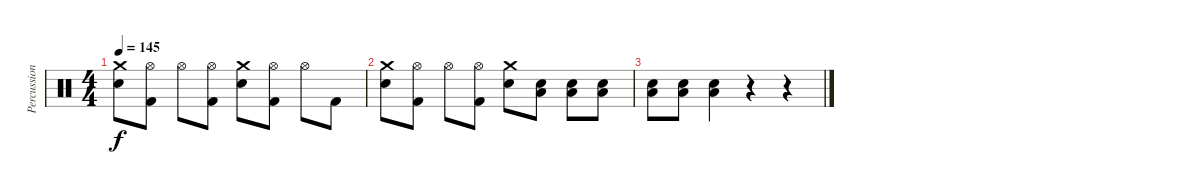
\track ("Percussion" "Percussion") {instrument percussion}
\staff {score}
\articulation defaults
\ts (4 4)
\tempo 145
\clef neutral
\ks c
("Crash medium (hit)" "Electric Snare (hit)").8{dy f} ("Hi-Hat (open)" "Kick (hit) 2").8 "Hi-Hat (open)".8 ("Hi-Hat (open)" "Kick (hit) 2").8 ("Crash medium (hit)" "Electric Snare (hit)").8 ("Hi-Hat (open)" "Kick (hit) 2").8 "Hi-Hat (open)".8 "Kick (hit) 2".8 |
("Crash medium (hit)" "Electric Snare (hit)").8 ("Hi-Hat (open)" "Kick (hit) 2").8 "Hi-Hat (open)".8 ("Hi-Hat (open)" "Kick (hit) 2").8 ("Crash medium (hit)" "Electric Snare (hit)").8 ("Low Tom (hit)" "Electric Snare (hit)").8 ("Low Tom (hit)" "Electric Snare (hit)").8 ("Low Tom (hit)" "Electric Snare (hit)").8 |
("Low Tom (hit)" "Electric Snare (hit)").8 ("Low Tom (hit)" "Electric Snare (hit)").8 ("Low Tom (hit)" "Electric Snare (hit)").4 r.4 r.4
